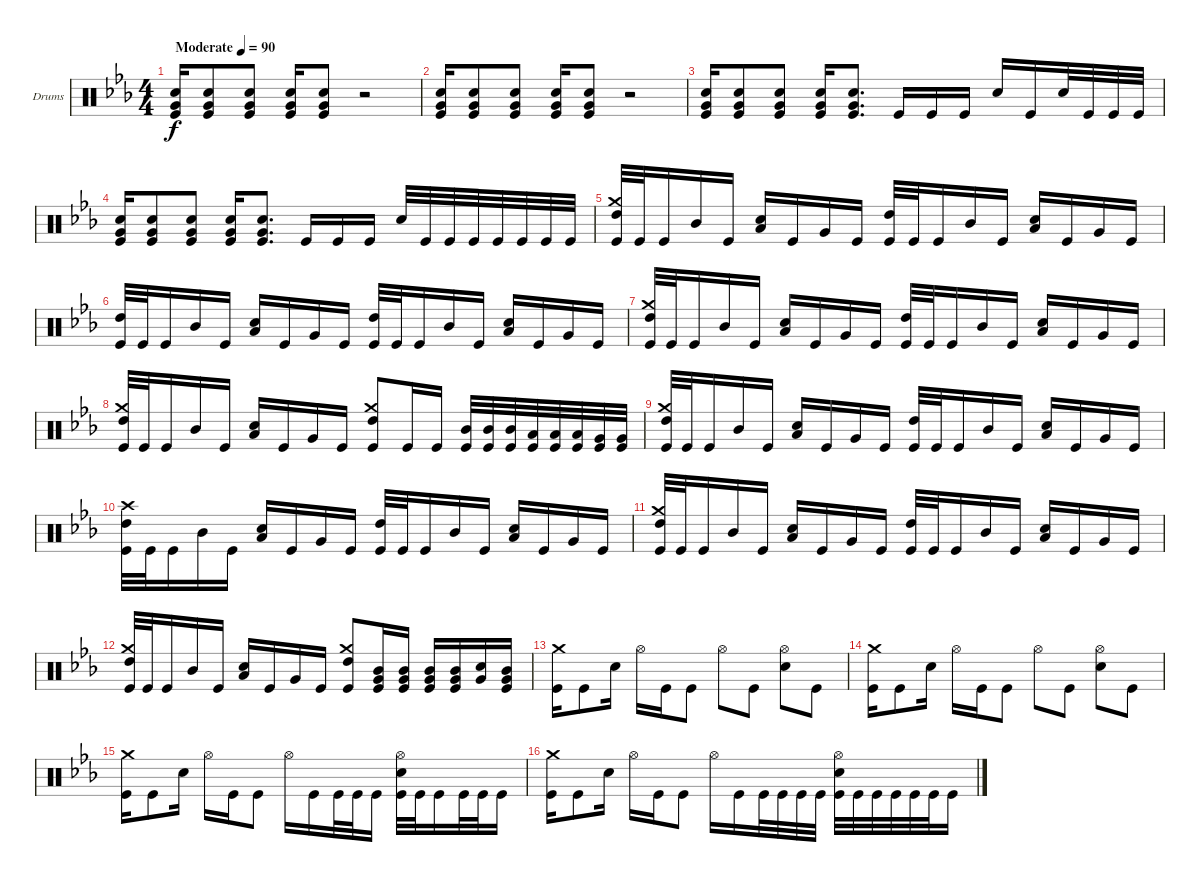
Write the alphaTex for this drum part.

\bracketExtendMode groupsimilarinstruments
\firstSystemTrackNameOrientation horizontal
\otherSystemsTrackNameOrientation horizontal
\track ("Drumkit" "Drums") {instrument percussion}
\staff {score}
\articulation defaults
\ts (4 4)
\beaming (8 2 2 2 2)
\tempo (90 "Moderate")
\clef neutral
\scale
0.525424
\ks cminor
("Very Low Tom (hit)" "Snare (hit) 2" "Kick (hit)").16{dy f} ("Very Low Tom (hit)" "Snare (hit) 2" "Kick (hit)").8 ("Very Low Tom (hit)" "Snare (hit) 2" "Kick (hit)").8 ("Very Low Tom (hit)" "Snare (hit) 2" "Kick (hit)").16 ("Very Low Tom (hit)" "Snare (hit) 2" "Kick (hit)").8 r.2 |
\scale
0.237288 ("Very Low Tom (hit)" "Snare (hit) 2" "Kick (hit)").16 ("Very Low Tom (hit)" "Snare (hit) 2" "Kick (hit)").8 ("Very Low Tom (hit)" "Snare (hit) 2" "Kick (hit)").8 ("Very Low Tom (hit)" "Snare (hit) 2" "Kick (hit)").16 ("Very Low Tom (hit)" "Snare (hit) 2" "Kick (hit)").8 r.2 |
\scale
0.237288 ("Very Low Tom (hit)" "Snare (hit) 2" "Kick (hit)").16 ("Very Low Tom (hit)" "Snare (hit) 2" "Kick (hit)").8 ("Very Low Tom (hit)" "Snare (hit) 2" "Kick (hit)").8 ("Very Low Tom (hit)" "Snare (hit) 2" "Kick (hit)").16 ("Very Low Tom (hit)" "Snare (hit) 2" "Kick (hit)").8{d} "Kick (hit)".16 "Kick (hit)".16 "Kick (hit)".16 "Snare (hit) 2".16 "Kick (hit)".16 "Snare (hit) 2".32 "Kick (hit)".32 "Kick (hit)".32 "Kick (hit)".32 |
\scale
0.333333 ("Very Low Tom (hit)" "Snare (hit) 2" "Kick (hit)").16 ("Very Low Tom (hit)" "Snare (hit) 2" "Kick (hit)").8 ("Very Low Tom (hit)" "Snare (hit) 2" "Kick (hit)").8 ("Very Low Tom (hit)" "Snare (hit) 2" "Kick (hit)").16 ("Very Low Tom (hit)" "Snare (hit) 2" "Kick (hit)").8{d} "Kick (hit)".16 "Kick (hit)".16 "Kick (hit)".16 "Snare (hit) 2".32 "Kick (hit)".32 "Kick (hit)".32 "Kick (hit)".32 "Kick (hit)".32 "Kick (hit)".32 "Kick (hit)".32 "Kick (hit)".32 |
\scale
0.333333 ("Crash medium (hit)" "High Tom (hit)" "Kick (hit)").32 "Kick (hit)".32 "Kick (hit)".16 "Mid Tom (hit)".16 "Kick (hit)".16 ("Low Tom (hit)" "Snare (hit) 2").16 "Kick (hit)".16 "Very Low Tom (hit)".16 "Kick (hit)".16 ("High Tom (hit)" "Kick (hit)").32 "Kick (hit)".32 "Kick (hit)".16 "Mid Tom (hit)".16 "Kick (hit)".16 ("Low Tom (hit)" "Snare (hit) 2").16 "Kick (hit)".16 "Very Low Tom (hit)".16 "Kick (hit)".16 |
\scale
0.333333 ("High Tom (hit)" "Kick (hit)").32 "Kick (hit)".32 "Kick (hit)".16 "Mid Tom (hit)".16 "Kick (hit)".16 ("Low Tom (hit)" "Snare (hit) 2").16 "Kick (hit)".16 "Very Low Tom (hit)".16 "Kick (hit)".16 ("High Tom (hit)" "Kick (hit)").32 "Kick (hit)".32 "Kick (hit)".16 "Mid Tom (hit)".16 "Kick (hit)".16 ("Low Tom (hit)" "Snare (hit) 2").16 "Kick (hit)".16 "Very Low Tom (hit)".16 "Kick (hit)".16 |
\scale
0.333333 ("Crash medium (hit)" "High Tom (hit)" "Kick (hit)").32 "Kick (hit)".32 "Kick (hit)".16 "Mid Tom (hit)".16 "Kick (hit)".16 ("Low Tom (hit)" "Snare (hit) 2").16 "Kick (hit)".16 "Very Low Tom (hit)".16 "Kick (hit)".16 ("High Tom (hit)" "Kick (hit)").32 "Kick (hit)".32 "Kick (hit)".16 "Mid Tom (hit)".16 "Kick (hit)".16 ("Low Tom (hit)" "Snare (hit) 2").16 "Kick (hit)".16 "Very Low Tom (hit)".16 "Kick (hit)".16 |
\scale
0.333333 ("Crash medium (hit)" "High Tom (hit)" "Kick (hit)").32 "Kick (hit)".32 "Kick (hit)".16 "Mid Tom (hit)".16 "Kick (hit)".16 ("Low Tom (hit)" "Snare (hit) 2").16 "Kick (hit)".16 "Very Low Tom (hit)".16 "Kick (hit)".16 ("Crash medium (hit)" "High Tom (hit)" "Kick (hit)").8 "Kick (hit)".16 "Kick (hit)".16 ("Mid Tom (hit)" "Kick (hit)").32 ("Mid Tom (hit)" "Kick (hit)").32 ("Mid Tom (hit)" "Kick (hit)").32 ("Low Tom (hit)" "Kick (hit)").32 ("Low Tom (hit)" "Kick (hit)").32 ("Low Tom (hit)" "Kick (hit)").32 ("Very Low Tom (hit)" "Kick (hit)").32 ("Very Low Tom (hit)" "Kick (hit)").32 |
\scale
0.333333 ("Crash medium (hit)" "High Tom (hit)" "Kick (hit)").32 "Kick (hit)".32 "Kick (hit)".16 "Mid Tom (hit)".16 "Kick (hit)".16 ("Low Tom (hit)" "Snare (hit) 2").16 "Kick (hit)".16 "Very Low Tom (hit)".16 "Kick (hit)".16 ("High Tom (hit)" "Kick (hit)").32 "Kick (hit)".32 "Kick (hit)".16 "Mid Tom (hit)".16 "Kick (hit)".16 ("Low Tom (hit)" "Snare (hit) 2").16 "Kick (hit)".16 "Very Low Tom (hit)".16 "Kick (hit)".16 |
\scale
0.333333 ("Crash high (hit)" "High Tom (hit)" "Kick (hit)").32 "Kick (hit)".32 "Kick (hit)".16 "Mid Tom (hit)".16 "Kick (hit)".16 ("Low Tom (hit)" "Snare (hit) 2").16 "Kick (hit)".16 "Very Low Tom (hit)".16 "Kick (hit)".16 ("High Tom (hit)" "Kick (hit)").32 "Kick (hit)".32 "Kick (hit)".16 "Mid Tom (hit)".16 "Kick (hit)".16 ("Low Tom (hit)" "Snare (hit) 2").16 "Kick (hit)".16 "Very Low Tom (hit)".16 "Kick (hit)".16 |
\scale
0.333333 ("Crash medium (hit)" "High Tom (hit)" "Kick (hit)").32 "Kick (hit)".32 "Kick (hit)".16 "Mid Tom (hit)".16 "Kick (hit)".16 ("Low Tom (hit)" "Snare (hit) 2").16 "Kick (hit)".16 "Very Low Tom (hit)".16 "Kick (hit)".16 ("High Tom (hit)" "Kick (hit)").32 "Kick (hit)".32 "Kick (hit)".16 "Mid Tom (hit)".16 "Kick (hit)".16 ("Low Tom (hit)" "Snare (hit) 2").16 "Kick (hit)".16 "Very Low Tom (hit)".16 "Kick (hit)".16 |
\scale
0.333333 ("Crash medium (hit)" "High Tom (hit)" "Kick (hit)").32 "Kick (hit)".32 "Kick (hit)".16 "Mid Tom (hit)".16 "Kick (hit)".16 ("Low Tom (hit)" "Snare (hit) 2").16 "Kick (hit)".16 "Very Low Tom (hit)".16 "Kick (hit)".16 ("Crash medium (hit)" "High Tom (hit)" "Kick (hit)").8 ("Mid Tom (hit)" "Very Low Tom (hit)" "Kick (hit)").16 ("Mid Tom (hit)" "Very Low Tom (hit)" "Kick (hit)").16 ("Mid Tom (hit)" "Very Low Tom (hit)" "Kick (hit)").16 ("Mid Tom (hit)" "Very Low Tom (hit)" "Kick (hit)").16 ("Very Low Tom (hit)" "Snare (hit) 2").16 ("Mid Tom (hit)" "Very Low Tom (hit)" "Kick (hit)").16 |
\scale
0.333333 ("Crash medium (hit)" "Kick (hit)").16 "Kick (hit)".8 "Snare (hit) 2".16 "Hi-Hat (open)".16 "Kick (hit)".16 "Kick (hit)".8 "Hi-Hat (open)".8 "Kick (hit)".8 ("Hi-Hat (open)" "Snare (hit) 2").8 "Kick (hit)".8 |
\scale
0.333333 ("Crash medium (hit)" "Kick (hit)").16 "Kick (hit)".8 "Snare (hit) 2".16 "Hi-Hat (open)".16 "Kick (hit)".16 "Kick (hit)".8 "Hi-Hat (open)".8 "Kick (hit)".8 ("Hi-Hat (open)" "Snare (hit) 2").8 "Kick (hit)".8 |
\scale
0.333333 ("Crash medium (hit)" "Kick (hit)").16 "Kick (hit)".8 "Snare (hit) 2".16 "Hi-Hat (open)".16 "Kick (hit)".16 "Kick (hit)".8 "Hi-Hat (open)".16 "Kick (hit)".16 "Kick (hit)".32 "Kick (hit)".32 "Kick (hit)".16 ("Hi-Hat (open)" "Snare (hit) 2" "Kick (hit)").32 "Kick (hit)".32 "Kick (hit)".16 "Kick (hit)".32 "Kick (hit)".32 "Kick (hit)".16 |
\scale
0.333333 ("Crash medium (hit)" "Kick (hit)").16 "Kick (hit)".8 "Snare (hit) 2".16 "Hi-Hat (open)".16 "Kick (hit)".16 "Kick (hit)".8 "Hi-Hat (open)".16 "Kick (hit)".16 "Kick (hit)".32 "Kick (hit)".32 "Kick (hit)".32 "Kick (hit)".32 ("Hi-Hat (open)" "Snare (hit) 2" "Kick (hit)").32 "Kick (hit)".32 "Kick (hit)".32 "Kick (hit)".32 "Kick (hit)".32 "Kick (hit)".32 "Kick (hit)".16
